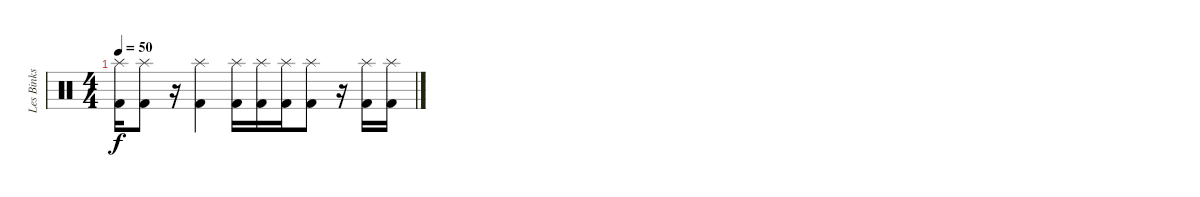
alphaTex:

\track ("Les Binks" "Les Binks") {instrument percussion}
\staff {score}
\articulation defaults
\ts (4 4)
\tempo 50
\clef neutral
\ks c
("Splash (hit)" "Kick (hit) 2").16{dy f} ("Splash (hit)" "Kick (hit) 2").8 r.16 ("Splash (hit)" "Kick (hit) 2").4 ("Splash (hit)" "Kick (hit) 2").16 ("Splash (hit)" "Kick (hit) 2").16 ("Splash (hit)" "Kick (hit) 2").16 ("Splash (hit)" "Kick (hit) 2").8 r.16 ("Splash (hit)" "Kick (hit) 2").16 ("Splash (hit)" "Kick (hit) 2").16
